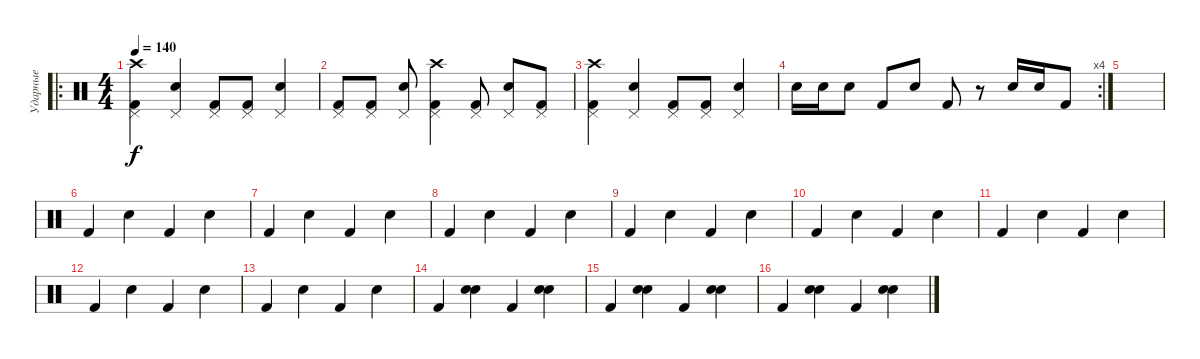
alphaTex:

\track ("Ударные" "Ударные") {instrument percussion}
\staff {score}
\articulation defaults
\ro
\ts (4 4)
\tempo 140
\clef neutral
\ks c
("Crash high (hit)" "Pedal Hi-Hat (hit)" "Kick (hit) 2").4{dy f} ("Pedal Hi-Hat (hit)" "Electric Snare (hit)").4 ("Pedal Hi-Hat (hit)" "Kick (hit) 2").8 ("Pedal Hi-Hat (hit)" "Kick (hit) 2").8 ("Pedal Hi-Hat (hit)" "Electric Snare (hit)").4 |
("Pedal Hi-Hat (hit)" "Kick (hit) 2").8 ("Pedal Hi-Hat (hit)" "Kick (hit) 2").8 ("Pedal Hi-Hat (hit)" "Electric Snare (hit)").8 ("Crash high (hit)" "Pedal Hi-Hat (hit)" "Kick (hit) 2").4 ("Pedal Hi-Hat (hit)" "Kick (hit) 2").8 ("Pedal Hi-Hat (hit)" "Electric Snare (hit)").8 ("Pedal Hi-Hat (hit)" "Kick (hit) 2").8 |
("Crash high (hit)" "Pedal Hi-Hat (hit)" "Kick (hit) 2").4 ("Pedal Hi-Hat (hit)" "Electric Snare (hit)").4 ("Pedal Hi-Hat (hit)" "Kick (hit) 2").8 ("Pedal Hi-Hat (hit)" "Kick (hit) 2").8 ("Pedal Hi-Hat (hit)" "Electric Snare (hit)").4 |
\rc 4 "Electric Snare (hit)".16 "Electric Snare (hit)".16 "Electric Snare (hit)".8 "Kick (hit) 2".8 "Electric Snare (hit)".8 "Kick (hit) 2".8
r.8 "Electric Snare (hit)".16 "Electric Snare (hit)".16 "Kick (hit) 2".8 |
|
"Kick (hit) 2".4 "Electric Snare (hit)".4 "Kick (hit) 2".4 "Electric Snare (hit)".4 |
"Kick (hit) 2".4 "Electric Snare (hit)".4 "Kick (hit) 2".4 "Electric Snare (hit)".4 |
"Kick (hit) 2".4 "Electric Snare (hit)".4 "Kick (hit) 2".4 "Electric Snare (hit)".4 |
"Kick (hit) 2".4 "Electric Snare (hit)".4 "Kick (hit) 2".4 "Electric Snare (hit)".4 |
"Kick (hit) 2".4 "Electric Snare (hit)".4 "Kick (hit) 2".4 "Electric Snare (hit)".4 |
"Kick (hit) 2".4 "Electric Snare (hit)".4 "Kick (hit) 2".4 "Electric Snare (hit)".4 |
"Kick (hit) 2".4 "Electric Snare (hit)".4 "Kick (hit) 2".4 "Electric Snare (hit)".4 |
"Kick (hit) 2".4 "Electric Snare (hit)".4 "Kick (hit) 2".4 "Electric Snare (hit)".4 |
"Kick (hit) 2".4 ("Hand Clap (hit)" "Electric Snare (hit)").4 "Kick (hit) 2".4 ("Hand Clap (hit)" "Electric Snare (hit)").4 |
"Kick (hit) 2".4 ("Hand Clap (hit)" "Electric Snare (hit)").4 "Kick (hit) 2".4 ("Hand Clap (hit)" "Electric Snare (hit)").4 |
"Kick (hit) 2".4 ("Hand Clap (hit)" "Electric Snare (hit)").4 "Kick (hit) 2".4 ("Hand Clap (hit)" "Electric Snare (hit)").4
